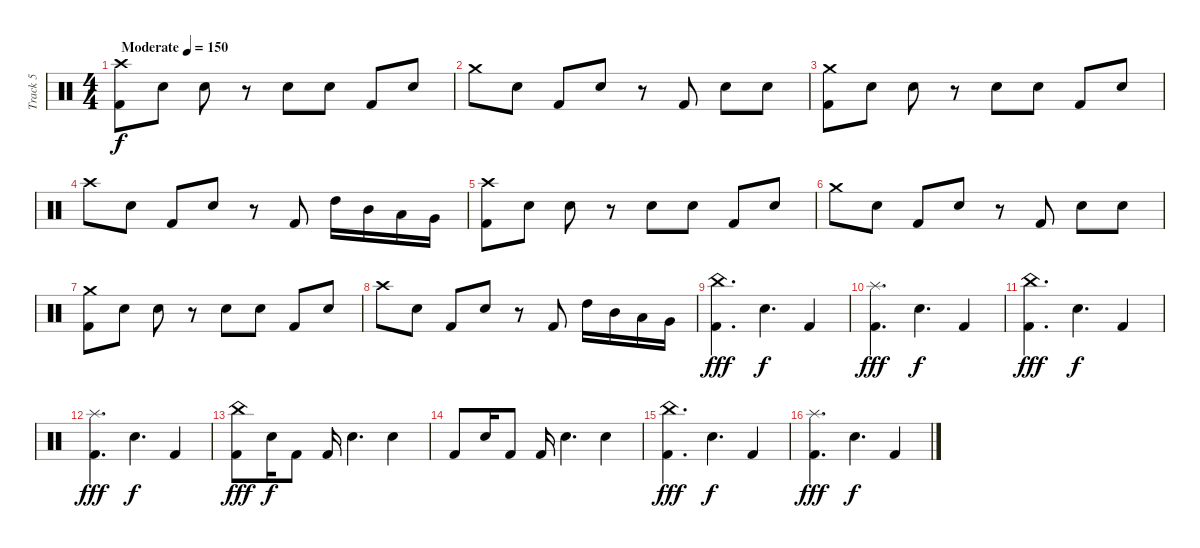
\track ("Track 5" "Track 5") {instrument percussion}
\staff {score}
\articulation defaults
\ts (4 4)
\tempo (150 "Moderate")
\clef neutral
\ks c
("Crash high (hit)" "Kick (hit) 2").8{dy f} "Electric Snare (hit)".8 "Electric Snare (hit)".8 r.8 "Electric Snare (hit)".8 "Electric Snare (hit)".8 "Kick (hit) 2".8 "Electric Snare (hit)".8 |
"Crash medium (hit)".8 "Electric Snare (hit)".8 "Kick (hit) 2".8 "Electric Snare (hit)".8 r.8 "Kick (hit) 2".8 "Electric Snare (hit)".8 "Electric Snare (hit)".8 |
("Crash medium (hit)" "Kick (hit) 2").8 "Electric Snare (hit)".8 "Electric Snare (hit)".8 r.8 "Electric Snare (hit)".8 "Electric Snare (hit)".8 "Kick (hit) 2".8 "Electric Snare (hit)".8 |
"Crash high (hit)".8 "Electric Snare (hit)".8 "Kick (hit) 2".8 "Electric Snare (hit)".8 r.8 "Kick (hit) 2".8 "High Tom (hit)".16 "Mid Tom (hit)".16 "Low Tom (hit)".16 "Very Low Tom (hit)".16 |
("Crash high (hit)" "Kick (hit) 2").8 "Electric Snare (hit)".8 "Electric Snare (hit)".8 r.8 "Electric Snare (hit)".8 "Electric Snare (hit)".8 "Kick (hit) 2".8 "Electric Snare (hit)".8 |
"Crash medium (hit)".8 "Electric Snare (hit)".8 "Kick (hit) 2".8 "Electric Snare (hit)".8 r.8 "Kick (hit) 2".8 "Electric Snare (hit)".8 "Electric Snare (hit)".8 |
("Crash medium (hit)" "Kick (hit) 2").8 "Electric Snare (hit)".8 "Electric Snare (hit)".8 r.8 "Electric Snare (hit)".8 "Electric Snare (hit)".8 "Kick (hit) 2".8 "Electric Snare (hit)".8 |
"Crash high (hit)".8 "Electric Snare (hit)".8 "Kick (hit) 2".8 "Electric Snare (hit)".8 r.8 "Kick (hit) 2".8 "High Tom (hit)".16 "Mid Tom (hit)".16 "Low Tom (hit)".16 "Very Low Tom (hit)".16 |
("China (hit)" "Kick (hit) 2").4{d dy fff} "Electric Snare (hit)".4{d dy f} "Kick (hit) 2".4 |
("Splash (hit)" "Kick (hit) 2").4{d dy fff} "Electric Snare (hit)".4{d dy f} "Kick (hit) 2".4 |
("China (hit)" "Kick (hit) 2").4{d dy fff} "Electric Snare (hit)".4{d dy f} "Kick (hit) 2".4 |
("Splash (hit)" "Kick (hit) 2").4{d dy fff} "Electric Snare (hit)".4{d dy f} "Kick (hit) 2".4 |
("China (hit)" "Kick (hit) 2").8{dy fff} "Electric Snare (hit)".16{dy f} "Kick (hit) 2".8 "Kick (hit) 2".16 "Electric Snare (hit)".4{d} "Electric Snare (hit)".4 |
"Kick (hit) 2".8 "Electric Snare (hit)".16 "Kick (hit) 2".8 "Kick (hit) 2".16 "Electric Snare (hit)".4{d} "Electric Snare (hit)".4 |
("China (hit)" "Kick (hit) 2").4{d dy fff} "Electric Snare (hit)".4{d dy f} "Kick (hit) 2".4 |
("Splash (hit)" "Kick (hit) 2").4{d dy fff} "Electric Snare (hit)".4{d dy f} "Kick (hit) 2".4
